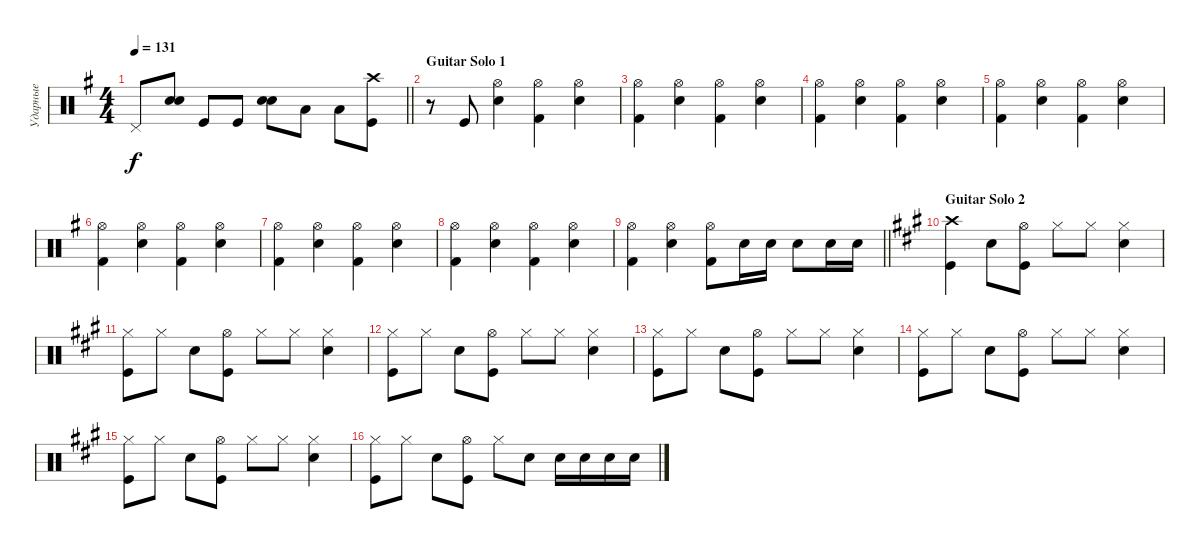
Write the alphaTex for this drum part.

\track ("Ударные" "Ударные") {instrument percussion}
\staff {score}
\articulation defaults
\ts (4 4)
\tempo 131
\clef neutral
\barLineRight lightlight
\ks eminor "Pedal Hi-Hat (hit)".8{dy f}
("Snare (hit) 2" "Snare (hit) 2").8{bd 240} "Kick (hit)".8 "Kick (hit)".8 ("Snare (hit) 2" "Snare (hit) 2").8{bd 240} "Low Floor Tom (hit)".8 "Low Floor Tom (hit)".8 ("Kick (hit)" "Crash high (hit)").8 |
\section ("" "Guitar Solo 1")
r.8 "Kick (hit)".8 ("Hi-Hat (open)" "Snare (hit) 2").4 ("Hi-Hat (open)" "Kick (hit) 2").4 ("Hi-Hat (open)" "Snare (hit) 2").4 |
("Hi-Hat (open)" "Kick (hit) 2").4 ("Hi-Hat (open)" "Snare (hit) 2").4 ("Hi-Hat (open)" "Kick (hit) 2").4 ("Hi-Hat (open)" "Snare (hit) 2").4 |
("Hi-Hat (open)" "Kick (hit) 2").4 ("Hi-Hat (open)" "Snare (hit) 2").4 ("Hi-Hat (open)" "Kick (hit) 2").4 ("Hi-Hat (open)" "Snare (hit) 2").4 |
("Hi-Hat (open)" "Kick (hit) 2").4 ("Hi-Hat (open)" "Snare (hit) 2").4 ("Hi-Hat (open)" "Kick (hit) 2").4 ("Hi-Hat (open)" "Snare (hit) 2").4 |
("Hi-Hat (open)" "Kick (hit) 2").4 ("Hi-Hat (open)" "Snare (hit) 2").4 ("Hi-Hat (open)" "Kick (hit) 2").4 ("Hi-Hat (open)" "Snare (hit) 2").4 |
("Hi-Hat (open)" "Kick (hit) 2").4 ("Hi-Hat (open)" "Snare (hit) 2").4 ("Hi-Hat (open)" "Kick (hit) 2").4 ("Hi-Hat (open)" "Snare (hit) 2").4 |
("Hi-Hat (open)" "Kick (hit) 2").4 ("Hi-Hat (open)" "Snare (hit) 2").4 ("Hi-Hat (open)" "Kick (hit) 2").4 ("Hi-Hat (open)" "Snare (hit) 2").4 |
\barLineRight lightlight
("Hi-Hat (open)" "Kick (hit) 2").4 ("Hi-Hat (open)" "Snare (hit) 2").4 ("Hi-Hat (open)" "Kick (hit) 2").8 "Snare (hit) 2".16 "Snare (hit) 2".16 "Snare (hit) 2".8 "Snare (hit) 2".16 "Snare (hit) 2".16 |
\section ("" "Guitar Solo 2")
\ks f#minor
("Kick (hit)" "Crash high (hit)").4 "Snare (hit) 2".8 ("Kick (hit)" "Hi-Hat (open)").8 "Hi-Hat (closed)".8 "Hi-Hat (closed)".8 ("Hi-Hat (closed)" "Snare (hit) 2").4 |
("Kick (hit)" "Hi-Hat (closed)").8 "Hi-Hat (closed)".8 "Snare (hit) 2".8 ("Kick (hit)" "Hi-Hat (open)").8 "Hi-Hat (closed)".8 "Hi-Hat (closed)".8 ("Hi-Hat (closed)" "Snare (hit) 2").4 |
("Kick (hit)" "Hi-Hat (closed)").8 "Hi-Hat (closed)".8 "Snare (hit) 2".8 ("Kick (hit)" "Hi-Hat (open)").8 "Hi-Hat (closed)".8 "Hi-Hat (closed)".8 ("Hi-Hat (closed)" "Snare (hit) 2").4 |
("Kick (hit)" "Hi-Hat (closed)").8 "Hi-Hat (closed)".8 "Snare (hit) 2".8 ("Kick (hit)" "Hi-Hat (open)").8 "Hi-Hat (closed)".8 "Hi-Hat (closed)".8 ("Hi-Hat (closed)" "Snare (hit) 2").4 |
("Kick (hit)" "Hi-Hat (closed)").8 "Hi-Hat (closed)".8 "Snare (hit) 2".8 ("Kick (hit)" "Hi-Hat (open)").8 "Hi-Hat (closed)".8 "Hi-Hat (closed)".8 ("Hi-Hat (closed)" "Snare (hit) 2").4 |
("Kick (hit)" "Hi-Hat (closed)").8 "Hi-Hat (closed)".8 "Snare (hit) 2".8 ("Kick (hit)" "Hi-Hat (open)").8 "Hi-Hat (closed)".8 "Hi-Hat (closed)".8 ("Hi-Hat (closed)" "Snare (hit) 2").4 |
("Kick (hit)" "Hi-Hat (closed)").8 "Hi-Hat (closed)".8 "Snare (hit) 2".8 ("Kick (hit)" "Hi-Hat (open)").8 "Hi-Hat (closed)".8 "Snare (hit) 2".8 "Snare (hit) 2".16 "Snare (hit) 2".16 "Snare (hit) 2".16 "Snare (hit) 2".16
